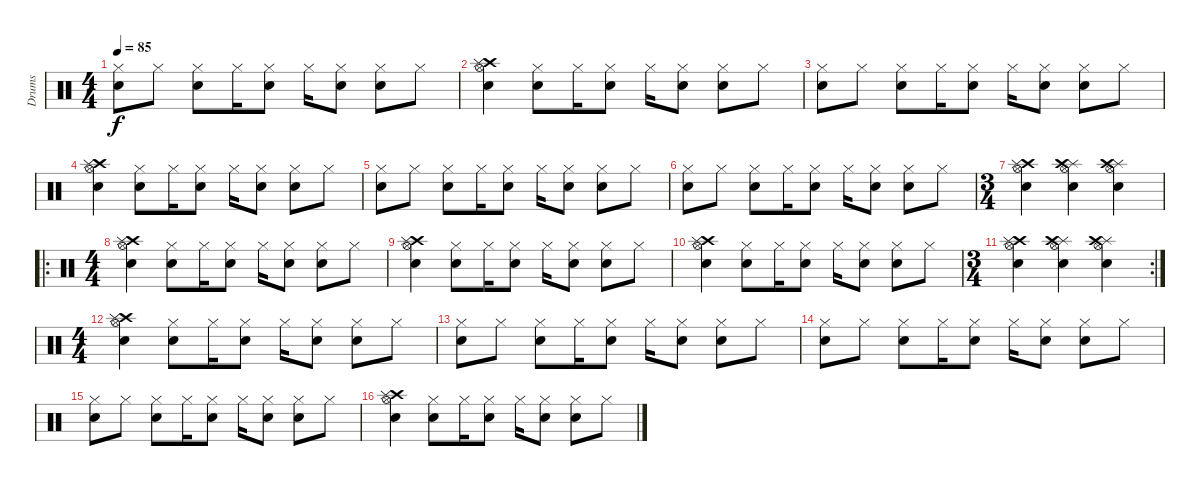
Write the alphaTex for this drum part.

\track ("Drums" "Drums") {instrument percussion}
\staff {score}
\articulation defaults
\ts (4 4)
\tempo 85
\clef neutral
\ks c
("Hi-Hat (closed)" "Snare (hit) 2").8{dy f} "Hi-Hat (closed)".8 ("Hi-Hat (closed)" "Snare (hit) 2").8 "Hi-Hat (closed)".16 ("Hi-Hat (closed)" "Snare (hit) 2").8 "Hi-Hat (closed)".16 ("Hi-Hat (closed)" "Snare (hit) 2").8 ("Hi-Hat (closed)" "Snare (hit) 2").8 "Hi-Hat (closed)".8 |
("Crash high (hit)" "Splash (hit)" "Snare (hit) 2" "Hi-Hat (open)").4 ("Hi-Hat (closed)" "Snare (hit) 2").8 "Hi-Hat (closed)".16 ("Hi-Hat (closed)" "Snare (hit) 2").8 "Hi-Hat (closed)".16 ("Hi-Hat (closed)" "Snare (hit) 2").8 ("Hi-Hat (closed)" "Snare (hit) 2").8 "Hi-Hat (closed)".8 |
("Hi-Hat (closed)" "Snare (hit) 2").8 "Hi-Hat (closed)".8 ("Hi-Hat (closed)" "Snare (hit) 2").8 "Hi-Hat (closed)".16 ("Hi-Hat (closed)" "Snare (hit) 2").8 "Hi-Hat (closed)".16 ("Hi-Hat (closed)" "Snare (hit) 2").8 ("Hi-Hat (closed)" "Snare (hit) 2").8 "Hi-Hat (closed)".8 |
("Crash high (hit)" "Splash (hit)" "Snare (hit) 2" "Hi-Hat (open)").4 ("Hi-Hat (closed)" "Snare (hit) 2").8 "Hi-Hat (closed)".16 ("Hi-Hat (closed)" "Snare (hit) 2").8 "Hi-Hat (closed)".16 ("Hi-Hat (closed)" "Snare (hit) 2").8 ("Hi-Hat (closed)" "Snare (hit) 2").8 "Hi-Hat (closed)".8 |
("Hi-Hat (closed)" "Snare (hit) 2").8 "Hi-Hat (closed)".8 ("Hi-Hat (closed)" "Snare (hit) 2").8 "Hi-Hat (closed)".16 ("Hi-Hat (closed)" "Snare (hit) 2").8 "Hi-Hat (closed)".16 ("Hi-Hat (closed)" "Snare (hit) 2").8 ("Hi-Hat (closed)" "Snare (hit) 2").8 "Hi-Hat (closed)".8 |
("Hi-Hat (closed)" "Snare (hit) 2").8 "Hi-Hat (closed)".8 ("Hi-Hat (closed)" "Snare (hit) 2").8 "Hi-Hat (closed)".16 ("Hi-Hat (closed)" "Snare (hit) 2").8 "Hi-Hat (closed)".16 ("Hi-Hat (closed)" "Snare (hit) 2").8 ("Hi-Hat (closed)" "Snare (hit) 2").8 "Hi-Hat (closed)".8 |
\ts (3 4)
("Crash high (hit)" "Splash (hit)" "Snare (hit) 2" "Hi-Hat (open)").4 ("Splash (hit)" "Hi-Hat (open)" "Crash high (hit)" "Snare (hit) 2").4 ("Hi-Hat (open)" "Snare (hit) 2" "Splash (hit)" "Crash high (hit)").4 |
\ro
\ts (4 4)
("Crash high (hit)" "Splash (hit)" "Snare (hit) 2" "Hi-Hat (open)").4 ("Hi-Hat (closed)" "Snare (hit) 2").8 "Hi-Hat (closed)".16 ("Hi-Hat (closed)" "Snare (hit) 2").8 "Hi-Hat (closed)".16 ("Hi-Hat (closed)" "Snare (hit) 2").8 ("Hi-Hat (closed)" "Snare (hit) 2").8 "Hi-Hat (closed)".8 |
("Crash high (hit)" "Splash (hit)" "Snare (hit) 2" "Hi-Hat (open)").4 ("Hi-Hat (closed)" "Snare (hit) 2").8 "Hi-Hat (closed)".16 ("Hi-Hat (closed)" "Snare (hit) 2").8 "Hi-Hat (closed)".16 ("Hi-Hat (closed)" "Snare (hit) 2").8 ("Hi-Hat (closed)" "Snare (hit) 2").8 "Hi-Hat (closed)".8 |
("Crash high (hit)" "Splash (hit)" "Snare (hit) 2" "Hi-Hat (open)").4 ("Hi-Hat (closed)" "Snare (hit) 2").8 "Hi-Hat (closed)".16 ("Hi-Hat (closed)" "Snare (hit) 2").8 "Hi-Hat (closed)".16 ("Hi-Hat (closed)" "Snare (hit) 2").8 ("Hi-Hat (closed)" "Snare (hit) 2").8 "Hi-Hat (closed)".8 |
\rc 2
\ts (3 4)
("Crash high (hit)" "Splash (hit)" "Snare (hit) 2" "Hi-Hat (open)").4 ("Splash (hit)" "Hi-Hat (open)" "Crash high (hit)" "Snare (hit) 2").4 ("Hi-Hat (open)" "Snare (hit) 2" "Splash (hit)" "Crash high (hit)").4 |
\ts (4 4)
("Crash high (hit)" "Splash (hit)" "Snare (hit) 2" "Hi-Hat (open)").4 ("Hi-Hat (closed)" "Snare (hit) 2").8 "Hi-Hat (closed)".16 ("Hi-Hat (closed)" "Snare (hit) 2").8 "Hi-Hat (closed)".16 ("Hi-Hat (closed)" "Snare (hit) 2").8 ("Hi-Hat (closed)" "Snare (hit) 2").8 "Hi-Hat (closed)".8 |
("Hi-Hat (closed)" "Snare (hit) 2").8 "Hi-Hat (closed)".8 ("Hi-Hat (closed)" "Snare (hit) 2").8 "Hi-Hat (closed)".16 ("Hi-Hat (closed)" "Snare (hit) 2").8 "Hi-Hat (closed)".16 ("Hi-Hat (closed)" "Snare (hit) 2").8 ("Hi-Hat (closed)" "Snare (hit) 2").8 "Hi-Hat (closed)".8 |
("Hi-Hat (closed)" "Snare (hit) 2").8 "Hi-Hat (closed)".8 ("Hi-Hat (closed)" "Snare (hit) 2").8 "Hi-Hat (closed)".16 ("Hi-Hat (closed)" "Snare (hit) 2").8 "Hi-Hat (closed)".16 ("Hi-Hat (closed)" "Snare (hit) 2").8 ("Hi-Hat (closed)" "Snare (hit) 2").8 "Hi-Hat (closed)".8 |
("Hi-Hat (closed)" "Snare (hit) 2").8 "Hi-Hat (closed)".8 ("Hi-Hat (closed)" "Snare (hit) 2").8 "Hi-Hat (closed)".16 ("Hi-Hat (closed)" "Snare (hit) 2").8 "Hi-Hat (closed)".16 ("Hi-Hat (closed)" "Snare (hit) 2").8 ("Hi-Hat (closed)" "Snare (hit) 2").8 "Hi-Hat (closed)".8 |
("Crash high (hit)" "Splash (hit)" "Snare (hit) 2" "Hi-Hat (open)").4 ("Hi-Hat (closed)" "Snare (hit) 2").8 "Hi-Hat (closed)".16 ("Hi-Hat (closed)" "Snare (hit) 2").8 "Hi-Hat (closed)".16 ("Hi-Hat (closed)" "Snare (hit) 2").8 ("Hi-Hat (closed)" "Snare (hit) 2").8 "Hi-Hat (closed)".8
